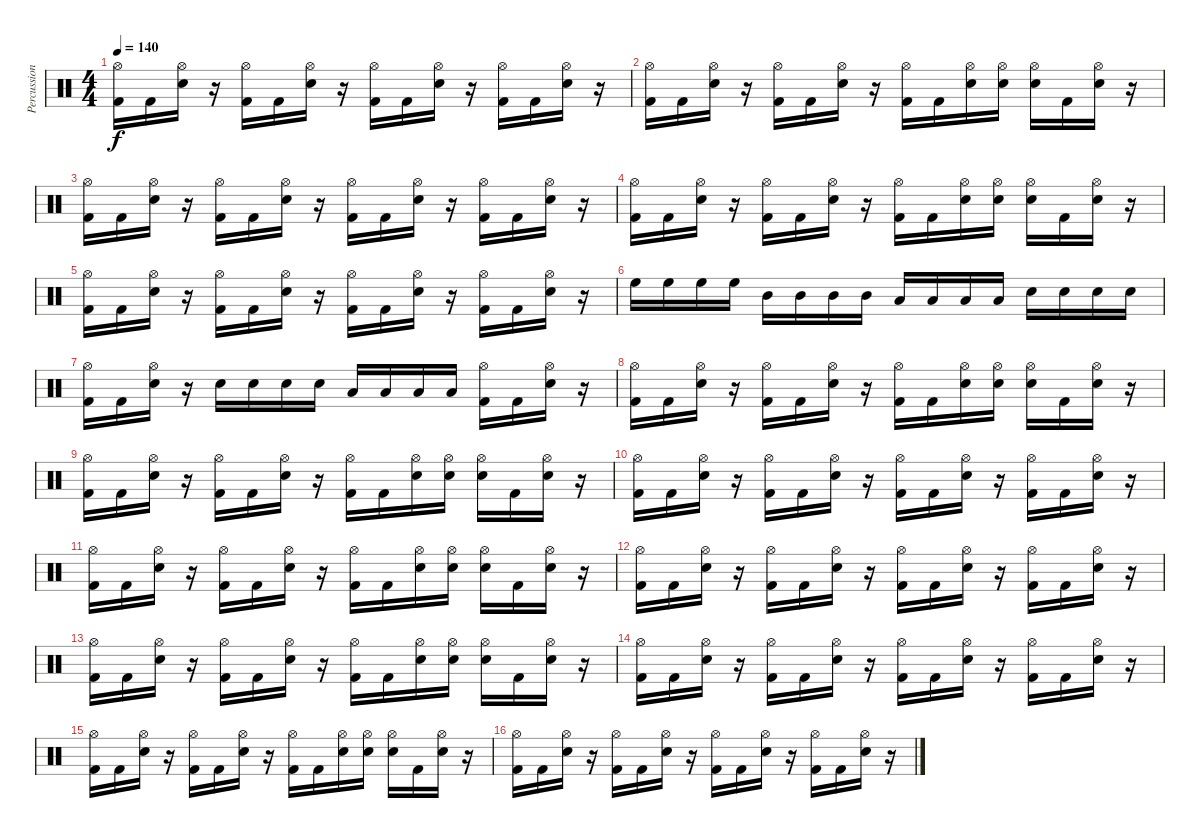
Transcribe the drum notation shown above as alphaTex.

\track ("Percussions" "Percussion") {instrument percussion}
\staff {score}
\articulation defaults
\ts (4 4)
\tempo 140
\clef neutral
\ks c
("Kick (hit) 2" "Hi-Hat (open)").16{dy f} "Kick (hit) 2".16 ("Electric Snare (hit)" "Hi-Hat (open)").16 r.16 ("Kick (hit) 2" "Hi-Hat (open)").16 "Kick (hit) 2".16 ("Electric Snare (hit)" "Hi-Hat (open)").16 r.16 ("Kick (hit) 2" "Hi-Hat (open)").16 "Kick (hit) 2".16 ("Electric Snare (hit)" "Hi-Hat (open)").16 r.16 ("Kick (hit) 2" "Hi-Hat (open)").16 "Kick (hit) 2".16 ("Electric Snare (hit)" "Hi-Hat (open)").16 r.16 |
("Kick (hit) 2" "Hi-Hat (open)").16 "Kick (hit) 2".16 ("Electric Snare (hit)" "Hi-Hat (open)").16 r.16 ("Kick (hit) 2" "Hi-Hat (open)").16 "Kick (hit) 2".16 ("Electric Snare (hit)" "Hi-Hat (open)").16 r.16 ("Kick (hit) 2" "Hi-Hat (open)").16 "Kick (hit) 2".16 ("Electric Snare (hit)" "Hi-Hat (open)").16 ("Electric Snare (hit)" "Hi-Hat (open)").16 ("Electric Snare (hit)" "Hi-Hat (open)").16 "Kick (hit) 2".16 ("Electric Snare (hit)" "Hi-Hat (open)").16 r.16 |
("Kick (hit) 2" "Hi-Hat (open)").16 "Kick (hit) 2".16 ("Electric Snare (hit)" "Hi-Hat (open)").16 r.16 ("Kick (hit) 2" "Hi-Hat (open)").16 "Kick (hit) 2".16 ("Electric Snare (hit)" "Hi-Hat (open)").16 r.16 ("Kick (hit) 2" "Hi-Hat (open)").16 "Kick (hit) 2".16 ("Electric Snare (hit)" "Hi-Hat (open)").16 r.16 ("Kick (hit) 2" "Hi-Hat (open)").16 "Kick (hit) 2".16 ("Electric Snare (hit)" "Hi-Hat (open)").16 r.16 |
("Kick (hit) 2" "Hi-Hat (open)").16 "Kick (hit) 2".16 ("Electric Snare (hit)" "Hi-Hat (open)").16 r.16 ("Kick (hit) 2" "Hi-Hat (open)").16 "Kick (hit) 2".16 ("Electric Snare (hit)" "Hi-Hat (open)").16 r.16 ("Kick (hit) 2" "Hi-Hat (open)").16 "Kick (hit) 2".16 ("Electric Snare (hit)" "Hi-Hat (open)").16 ("Electric Snare (hit)" "Hi-Hat (open)").16 ("Electric Snare (hit)" "Hi-Hat (open)").16 "Kick (hit) 2".16 ("Electric Snare (hit)" "Hi-Hat (open)").16 r.16 |
("Kick (hit) 2" "Hi-Hat (open)").16 "Kick (hit) 2".16 ("Electric Snare (hit)" "Hi-Hat (open)").16 r.16 ("Kick (hit) 2" "Hi-Hat (open)").16 "Kick (hit) 2".16 ("Electric Snare (hit)" "Hi-Hat (open)").16 r.16 ("Kick (hit) 2" "Hi-Hat (open)").16 "Kick (hit) 2".16 ("Electric Snare (hit)" "Hi-Hat (open)").16 r.16 ("Kick (hit) 2" "Hi-Hat (open)").16 "Kick (hit) 2".16 ("Electric Snare (hit)" "Hi-Hat (open)").16 r.16 |
"High Floor Tom (hit)".16 "High Floor Tom (hit)".16 "High Floor Tom (hit)".16 "High Floor Tom (hit)".16 "Mid Tom (hit)".16 "Mid Tom (hit)".16 "Mid Tom (hit)".16 "Mid Tom (hit)".16 "Low Tom (hit)".16 "Low Tom (hit)".16 "Low Tom (hit)".16 "Low Tom (hit)".16 "Electric Snare (hit)".16 "Electric Snare (hit)".16 "Electric Snare (hit)".16 "Electric Snare (hit)".16 |
("Kick (hit) 2" "Hi-Hat (open)").16 "Kick (hit) 2".16 ("Electric Snare (hit)" "Hi-Hat (open)").16 r.16 "Electric Snare (hit)".16 "Electric Snare (hit)".16 "Electric Snare (hit)".16 "Electric Snare (hit)".16 "Low Tom (hit)".16 "Low Tom (hit)".16 "Low Tom (hit)".16 "Low Tom (hit)".16 ("Kick (hit) 2" "Hi-Hat (open)").16 "Kick (hit) 2".16 ("Electric Snare (hit)" "Hi-Hat (open)").16 r.16 |
("Kick (hit) 2" "Hi-Hat (open)").16 "Kick (hit) 2".16 ("Electric Snare (hit)" "Hi-Hat (open)").16 r.16 ("Kick (hit) 2" "Hi-Hat (open)").16 "Kick (hit) 2".16 ("Electric Snare (hit)" "Hi-Hat (open)").16 r.16 ("Kick (hit) 2" "Hi-Hat (open)").16 "Kick (hit) 2".16 ("Electric Snare (hit)" "Hi-Hat (open)").16 ("Electric Snare (hit)" "Hi-Hat (open)").16 ("Electric Snare (hit)" "Hi-Hat (open)").16 "Kick (hit) 2".16 ("Electric Snare (hit)" "Hi-Hat (open)").16 r.16 |
("Kick (hit) 2" "Hi-Hat (open)").16 "Kick (hit) 2".16 ("Electric Snare (hit)" "Hi-Hat (open)").16 r.16 ("Kick (hit) 2" "Hi-Hat (open)").16 "Kick (hit) 2".16 ("Electric Snare (hit)" "Hi-Hat (open)").16 r.16 ("Kick (hit) 2" "Hi-Hat (open)").16 "Kick (hit) 2".16 ("Electric Snare (hit)" "Hi-Hat (open)").16 ("Electric Snare (hit)" "Hi-Hat (open)").16 ("Electric Snare (hit)" "Hi-Hat (open)").16 "Kick (hit) 2".16 ("Electric Snare (hit)" "Hi-Hat (open)").16 r.16 |
("Kick (hit) 2" "Hi-Hat (open)").16 "Kick (hit) 2".16 ("Electric Snare (hit)" "Hi-Hat (open)").16 r.16 ("Kick (hit) 2" "Hi-Hat (open)").16 "Kick (hit) 2".16 ("Electric Snare (hit)" "Hi-Hat (open)").16 r.16 ("Kick (hit) 2" "Hi-Hat (open)").16 "Kick (hit) 2".16 ("Electric Snare (hit)" "Hi-Hat (open)").16 r.16 ("Kick (hit) 2" "Hi-Hat (open)").16 "Kick (hit) 2".16 ("Electric Snare (hit)" "Hi-Hat (open)").16 r.16 |
("Kick (hit) 2" "Hi-Hat (open)").16 "Kick (hit) 2".16 ("Electric Snare (hit)" "Hi-Hat (open)").16 r.16 ("Kick (hit) 2" "Hi-Hat (open)").16 "Kick (hit) 2".16 ("Electric Snare (hit)" "Hi-Hat (open)").16 r.16 ("Kick (hit) 2" "Hi-Hat (open)").16 "Kick (hit) 2".16 ("Electric Snare (hit)" "Hi-Hat (open)").16 ("Electric Snare (hit)" "Hi-Hat (open)").16 ("Electric Snare (hit)" "Hi-Hat (open)").16 "Kick (hit) 2".16 ("Electric Snare (hit)" "Hi-Hat (open)").16 r.16 |
("Kick (hit) 2" "Hi-Hat (open)").16 "Kick (hit) 2".16 ("Electric Snare (hit)" "Hi-Hat (open)").16 r.16 ("Kick (hit) 2" "Hi-Hat (open)").16 "Kick (hit) 2".16 ("Electric Snare (hit)" "Hi-Hat (open)").16 r.16 ("Kick (hit) 2" "Hi-Hat (open)").16 "Kick (hit) 2".16 ("Electric Snare (hit)" "Hi-Hat (open)").16 r.16 ("Kick (hit) 2" "Hi-Hat (open)").16 "Kick (hit) 2".16 ("Electric Snare (hit)" "Hi-Hat (open)").16 r.16 |
("Kick (hit) 2" "Hi-Hat (open)").16 "Kick (hit) 2".16 ("Electric Snare (hit)" "Hi-Hat (open)").16 r.16 ("Kick (hit) 2" "Hi-Hat (open)").16 "Kick (hit) 2".16 ("Electric Snare (hit)" "Hi-Hat (open)").16 r.16 ("Kick (hit) 2" "Hi-Hat (open)").16 "Kick (hit) 2".16 ("Electric Snare (hit)" "Hi-Hat (open)").16 ("Electric Snare (hit)" "Hi-Hat (open)").16 ("Electric Snare (hit)" "Hi-Hat (open)").16 "Kick (hit) 2".16 ("Electric Snare (hit)" "Hi-Hat (open)").16 r.16 |
("Kick (hit) 2" "Hi-Hat (open)").16 "Kick (hit) 2".16 ("Electric Snare (hit)" "Hi-Hat (open)").16 r.16 ("Kick (hit) 2" "Hi-Hat (open)").16 "Kick (hit) 2".16 ("Electric Snare (hit)" "Hi-Hat (open)").16 r.16 ("Kick (hit) 2" "Hi-Hat (open)").16 "Kick (hit) 2".16 ("Electric Snare (hit)" "Hi-Hat (open)").16 r.16 ("Kick (hit) 2" "Hi-Hat (open)").16 "Kick (hit) 2".16 ("Electric Snare (hit)" "Hi-Hat (open)").16 r.16 |
("Kick (hit) 2" "Hi-Hat (open)").16 "Kick (hit) 2".16 ("Electric Snare (hit)" "Hi-Hat (open)").16 r.16 ("Kick (hit) 2" "Hi-Hat (open)").16 "Kick (hit) 2".16 ("Electric Snare (hit)" "Hi-Hat (open)").16 r.16 ("Kick (hit) 2" "Hi-Hat (open)").16 "Kick (hit) 2".16 ("Electric Snare (hit)" "Hi-Hat (open)").16 ("Electric Snare (hit)" "Hi-Hat (open)").16 ("Electric Snare (hit)" "Hi-Hat (open)").16 "Kick (hit) 2".16 ("Electric Snare (hit)" "Hi-Hat (open)").16 r.16 |
("Kick (hit) 2" "Hi-Hat (open)").16 "Kick (hit) 2".16 ("Electric Snare (hit)" "Hi-Hat (open)").16 r.16 ("Kick (hit) 2" "Hi-Hat (open)").16 "Kick (hit) 2".16 ("Electric Snare (hit)" "Hi-Hat (open)").16 r.16 ("Kick (hit) 2" "Hi-Hat (open)").16 "Kick (hit) 2".16 ("Electric Snare (hit)" "Hi-Hat (open)").16 r.16 ("Kick (hit) 2" "Hi-Hat (open)").16 "Kick (hit) 2".16 ("Electric Snare (hit)" "Hi-Hat (open)").16 r.16
